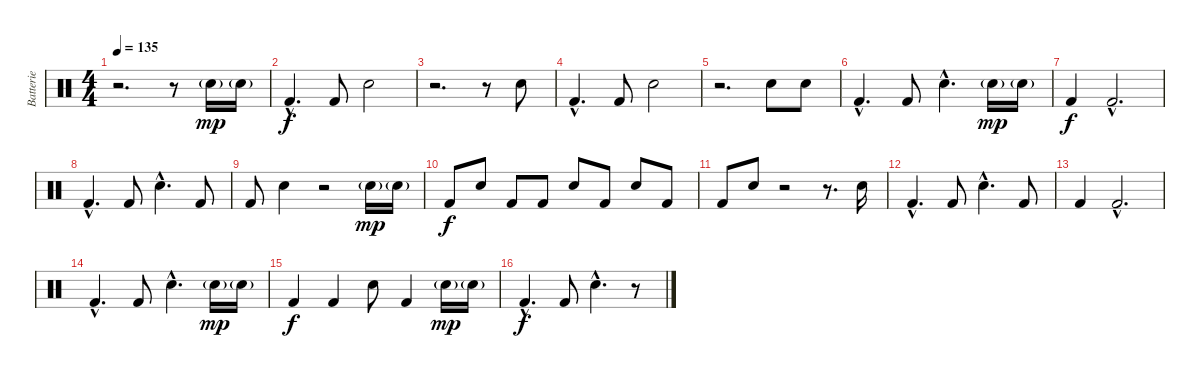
\track ("Batterie" "Batterie") {instrument percussion}
\staff {score}
\articulation defaults
\ts (4 4)
\tempo 135
\clef neutral
\ks c
r.2{d dy f} r.8 "Snare (hit) 2"{g}.16{dy mp} "Snare (hit) 2"{g}.16 |
"Kick (hit) 2"{hac}.4{d dy f} "Kick (hit) 2".8 "Snare (hit) 2".2 |
r.2{d} r.8 "Snare (hit) 2".8 |
"Kick (hit) 2"{hac}.4{d} "Kick (hit) 2".8 "Snare (hit) 2".2 |
r.2{d} "Snare (hit) 2".8 "Snare (hit) 2".8 |
"Kick (hit) 2"{hac}.4{d} "Kick (hit) 2".8 "Snare (hit) 2"{hac}.4{d} "Snare (hit) 2"{g}.16{dy mp} "Snare (hit) 2"{g}.16 |
"Kick (hit) 2".4{dy f} "Kick (hit) 2"{hac}.2{d} |
"Kick (hit) 2"{hac}.4{d} "Kick (hit) 2".8 "Snare (hit) 2"{hac}.4{d} "Kick (hit) 2".8 |
"Kick (hit) 2".8 "Snare (hit) 2".4 r.2 "Snare (hit) 2"{g}.16{dy mp} "Snare (hit) 2"{g}.16 |
"Kick (hit) 2".8{dy f} "Snare (hit) 2".8 "Kick (hit) 2".8 "Kick (hit) 2".8 "Snare (hit) 2".8 "Kick (hit) 2".8 "Snare (hit) 2".8 "Kick (hit) 2".8 |
"Kick (hit) 2".8 "Snare (hit) 2".8 r.2 r.8{d} "Snare (hit) 2".16 |
"Kick (hit) 2"{hac}.4{d} "Kick (hit) 2".8 "Snare (hit) 2"{hac}.4{d} "Kick (hit) 2".8 |
"Kick (hit) 2".4 "Kick (hit) 2"{hac}.2{d} |
"Kick (hit) 2"{hac}.4{d} "Kick (hit) 2".8 "Snare (hit) 2"{hac}.4{d} "Snare (hit) 2"{g}.16{dy mp} "Snare (hit) 2"{g}.16 |
"Kick (hit) 2".4{dy f} "Kick (hit) 2".4 "Snare (hit) 2".8 "Kick (hit) 2".4 "Snare (hit) 2"{g}.16{dy mp} "Snare (hit) 2"{g}.16 |
"Kick (hit) 2"{hac}.4{d dy f} "Kick (hit) 2".8 "Snare (hit) 2"{hac}.4{d} r.8
